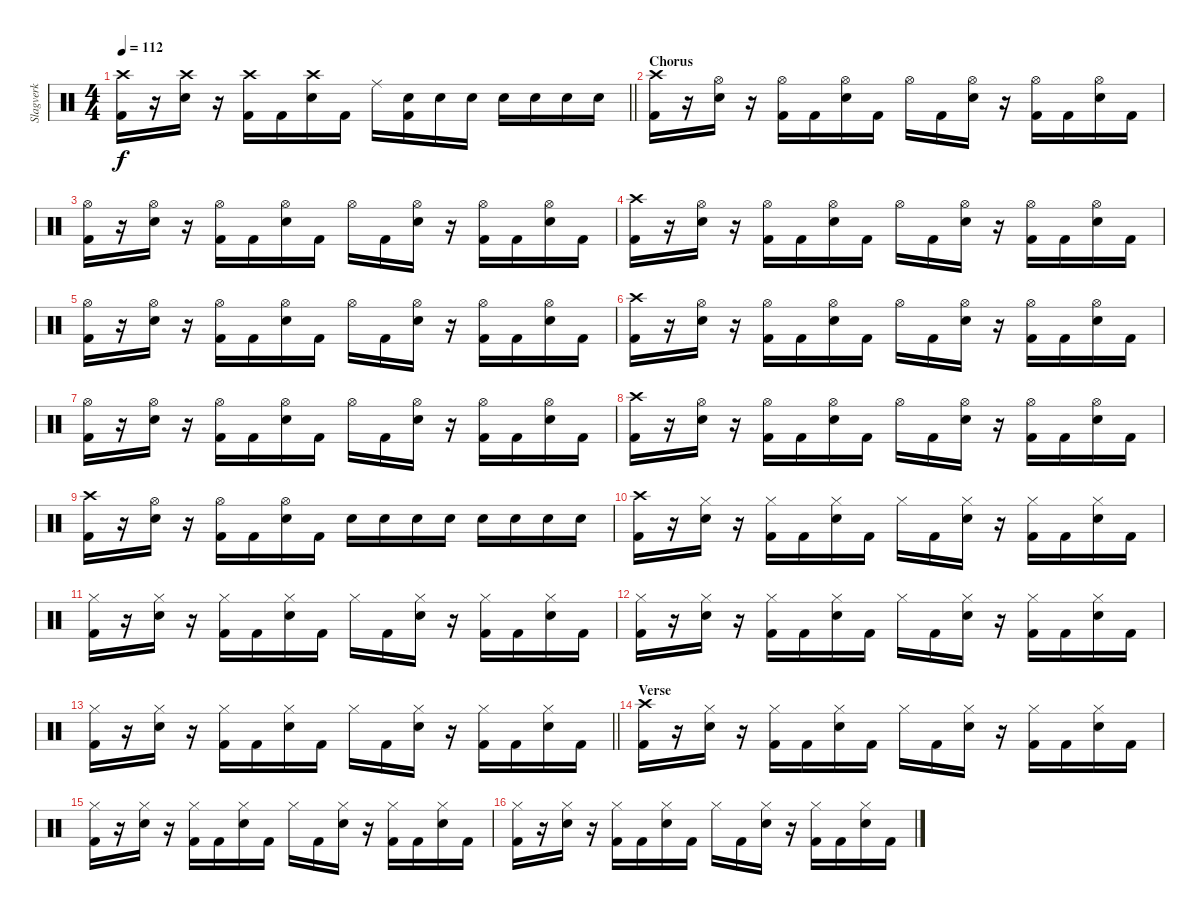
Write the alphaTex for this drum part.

\track ("Slagverk" "Slagverk") {instrument percussion}
\staff {score}
\articulation defaults
\ts (4 4)
\tempo 112
\clef neutral
\barLineRight lightlight
\ks c
("Crash high (hit)" "Kick (hit) 2").16{dy f} r.16 ("Crash high (hit)" "Snare (hit) 2").16 r.16 ("Crash high (hit)" "Kick (hit) 2").16 "Kick (hit) 2".16 ("Crash high (hit)" "Snare (hit) 2").16 "Kick (hit) 2".16 "Ride (middle)".16 ("Snare (hit) 2" "Kick (hit) 2").16 "Snare (hit) 2".16 "Snare (hit) 2".16 "Snare (hit) 2".16 "Snare (hit) 2".16 "Snare (hit) 2".16 "Snare (hit) 2".16 |
\section ("" "Chorus")
("Crash high (hit)" "Kick (hit) 2").16 r.16 ("Hi-Hat (open)" "Snare (hit) 2").16 r.16 ("Hi-Hat (open)" "Kick (hit) 2").16 "Kick (hit) 2".16 ("Hi-Hat (open)" "Snare (hit) 2").16 "Kick (hit) 2".16 "Hi-Hat (open)".16 "Kick (hit) 2".16 ("Hi-Hat (open)" "Snare (hit) 2").16 r.16 ("Hi-Hat (open)" "Kick (hit) 2").16 "Kick (hit) 2".16 ("Hi-Hat (open)" "Snare (hit) 2").16 "Kick (hit) 2".16 |
("Hi-Hat (open)" "Kick (hit) 2").16 r.16 ("Hi-Hat (open)" "Snare (hit) 2").16 r.16 ("Hi-Hat (open)" "Kick (hit) 2").16 "Kick (hit) 2".16 ("Hi-Hat (open)" "Snare (hit) 2").16 "Kick (hit) 2".16 "Hi-Hat (open)".16 "Kick (hit) 2".16 ("Hi-Hat (open)" "Snare (hit) 2").16 r.16 ("Hi-Hat (open)" "Kick (hit) 2").16 "Kick (hit) 2".16 ("Hi-Hat (open)" "Snare (hit) 2").16 "Kick (hit) 2".16 |
("Crash high (hit)" "Kick (hit) 2").16 r.16 ("Hi-Hat (open)" "Snare (hit) 2").16 r.16 ("Hi-Hat (open)" "Kick (hit) 2").16 "Kick (hit) 2".16 ("Hi-Hat (open)" "Snare (hit) 2").16 "Kick (hit) 2".16 "Hi-Hat (open)".16 "Kick (hit) 2".16 ("Hi-Hat (open)" "Snare (hit) 2").16 r.16 ("Hi-Hat (open)" "Kick (hit) 2").16 "Kick (hit) 2".16 ("Hi-Hat (open)" "Snare (hit) 2").16 "Kick (hit) 2".16 |
("Hi-Hat (open)" "Kick (hit) 2").16 r.16 ("Hi-Hat (open)" "Snare (hit) 2").16 r.16 ("Hi-Hat (open)" "Kick (hit) 2").16 "Kick (hit) 2".16 ("Hi-Hat (open)" "Snare (hit) 2").16 "Kick (hit) 2".16 "Hi-Hat (open)".16 "Kick (hit) 2".16 ("Hi-Hat (open)" "Snare (hit) 2").16 r.16 ("Hi-Hat (open)" "Kick (hit) 2").16 "Kick (hit) 2".16 ("Hi-Hat (open)" "Snare (hit) 2").16 "Kick (hit) 2".16 |
("Crash high (hit)" "Kick (hit) 2").16 r.16 ("Hi-Hat (open)" "Snare (hit) 2").16 r.16 ("Hi-Hat (open)" "Kick (hit) 2").16 "Kick (hit) 2".16 ("Hi-Hat (open)" "Snare (hit) 2").16 "Kick (hit) 2".16 "Hi-Hat (open)".16 "Kick (hit) 2".16 ("Hi-Hat (open)" "Snare (hit) 2").16 r.16 ("Hi-Hat (open)" "Kick (hit) 2").16 "Kick (hit) 2".16 ("Hi-Hat (open)" "Snare (hit) 2").16 "Kick (hit) 2".16 |
("Hi-Hat (open)" "Kick (hit) 2").16 r.16 ("Hi-Hat (open)" "Snare (hit) 2").16 r.16 ("Hi-Hat (open)" "Kick (hit) 2").16 "Kick (hit) 2".16 ("Hi-Hat (open)" "Snare (hit) 2").16 "Kick (hit) 2".16 "Hi-Hat (open)".16 "Kick (hit) 2".16 ("Hi-Hat (open)" "Snare (hit) 2").16 r.16 ("Hi-Hat (open)" "Kick (hit) 2").16 "Kick (hit) 2".16 ("Hi-Hat (open)" "Snare (hit) 2").16 "Kick (hit) 2".16 |
("Crash high (hit)" "Kick (hit) 2").16 r.16 ("Hi-Hat (open)" "Snare (hit) 2").16 r.16 ("Hi-Hat (open)" "Kick (hit) 2").16 "Kick (hit) 2".16 ("Hi-Hat (open)" "Snare (hit) 2").16 "Kick (hit) 2".16 "Hi-Hat (open)".16 "Kick (hit) 2".16 ("Hi-Hat (open)" "Snare (hit) 2").16 r.16 ("Hi-Hat (open)" "Kick (hit) 2").16 "Kick (hit) 2".16 ("Hi-Hat (open)" "Snare (hit) 2").16 "Kick (hit) 2".16 |
("Crash high (hit)" "Kick (hit) 2").16 r.16 ("Hi-Hat (open)" "Snare (hit) 2").16 r.16 ("Hi-Hat (open)" "Kick (hit) 2").16 "Kick (hit) 2".16 ("Hi-Hat (open)" "Snare (hit) 2").16 "Kick (hit) 2".16 "Snare (hit) 2".16 "Snare (hit) 2".16 "Snare (hit) 2".16 "Snare (hit) 2".16 "Snare (hit) 2".16 "Snare (hit) 2".16 "Snare (hit) 2".16 "Snare (hit) 2".16 |
("Crash high (hit)" "Kick (hit) 2").16 r.16 ("Hi-Hat (closed)" "Snare (hit) 2").16 r.16 ("Hi-Hat (closed)" "Kick (hit) 2").16 "Kick (hit) 2".16 ("Hi-Hat (closed)" "Snare (hit) 2").16 "Kick (hit) 2".16 "Hi-Hat (closed)".16 "Kick (hit) 2".16 ("Hi-Hat (closed)" "Snare (hit) 2").16 r.16 ("Hi-Hat (closed)" "Kick (hit) 2").16 "Kick (hit) 2".16 ("Hi-Hat (closed)" "Snare (hit) 2").16 "Kick (hit) 2".16 |
("Hi-Hat (closed)" "Kick (hit) 2").16 r.16 ("Hi-Hat (closed)" "Snare (hit) 2").16 r.16 ("Hi-Hat (closed)" "Kick (hit) 2").16 "Kick (hit) 2".16 ("Hi-Hat (closed)" "Snare (hit) 2").16 "Kick (hit) 2".16 "Hi-Hat (closed)".16 "Kick (hit) 2".16 ("Hi-Hat (closed)" "Snare (hit) 2").16 r.16 ("Hi-Hat (closed)" "Kick (hit) 2").16 "Kick (hit) 2".16 ("Hi-Hat (closed)" "Snare (hit) 2").16 "Kick (hit) 2".16 |
("Hi-Hat (closed)" "Kick (hit) 2").16 r.16 ("Hi-Hat (closed)" "Snare (hit) 2").16 r.16 ("Hi-Hat (closed)" "Kick (hit) 2").16 "Kick (hit) 2".16 ("Hi-Hat (closed)" "Snare (hit) 2").16 "Kick (hit) 2".16 "Hi-Hat (closed)".16 "Kick (hit) 2".16 ("Hi-Hat (closed)" "Snare (hit) 2").16 r.16 ("Hi-Hat (closed)" "Kick (hit) 2").16 "Kick (hit) 2".16 ("Hi-Hat (closed)" "Snare (hit) 2").16 "Kick (hit) 2".16 |
\barLineRight lightlight
("Hi-Hat (closed)" "Kick (hit) 2").16 r.16 ("Hi-Hat (closed)" "Snare (hit) 2").16 r.16 ("Hi-Hat (closed)" "Kick (hit) 2").16 "Kick (hit) 2".16 ("Hi-Hat (closed)" "Snare (hit) 2").16 "Kick (hit) 2".16 "Hi-Hat (closed)".16 "Kick (hit) 2".16 ("Hi-Hat (closed)" "Snare (hit) 2").16 r.16 ("Hi-Hat (closed)" "Kick (hit) 2").16 "Kick (hit) 2".16 ("Hi-Hat (closed)" "Snare (hit) 2").16 "Kick (hit) 2".16 |
\section ("" "Verse")
("Crash high (hit)" "Kick (hit) 2").16 r.16 ("Hi-Hat (closed)" "Snare (hit) 2").16 r.16 ("Hi-Hat (closed)" "Kick (hit) 2").16 "Kick (hit) 2".16 ("Hi-Hat (closed)" "Snare (hit) 2").16 "Kick (hit) 2".16 "Hi-Hat (closed)".16 "Kick (hit) 2".16 ("Hi-Hat (closed)" "Snare (hit) 2").16 r.16 ("Hi-Hat (closed)" "Kick (hit) 2").16 "Kick (hit) 2".16 ("Hi-Hat (closed)" "Snare (hit) 2").16 "Kick (hit) 2".16 |
("Hi-Hat (closed)" "Kick (hit) 2").16 r.16 ("Hi-Hat (closed)" "Snare (hit) 2").16 r.16 ("Hi-Hat (closed)" "Kick (hit) 2").16 "Kick (hit) 2".16 ("Hi-Hat (closed)" "Snare (hit) 2").16 "Kick (hit) 2".16 "Hi-Hat (closed)".16 "Kick (hit) 2".16 ("Hi-Hat (closed)" "Snare (hit) 2").16 r.16 ("Hi-Hat (closed)" "Kick (hit) 2").16 "Kick (hit) 2".16 ("Hi-Hat (closed)" "Snare (hit) 2").16 "Kick (hit) 2".16 |
("Hi-Hat (closed)" "Kick (hit) 2").16 r.16 ("Hi-Hat (closed)" "Snare (hit) 2").16 r.16 ("Hi-Hat (closed)" "Kick (hit) 2").16 "Kick (hit) 2".16 ("Hi-Hat (closed)" "Snare (hit) 2").16 "Kick (hit) 2".16 "Hi-Hat (closed)".16 "Kick (hit) 2".16 ("Hi-Hat (closed)" "Snare (hit) 2").16 r.16 ("Hi-Hat (closed)" "Kick (hit) 2").16 "Kick (hit) 2".16 ("Hi-Hat (closed)" "Snare (hit) 2").16 "Kick (hit) 2".16
